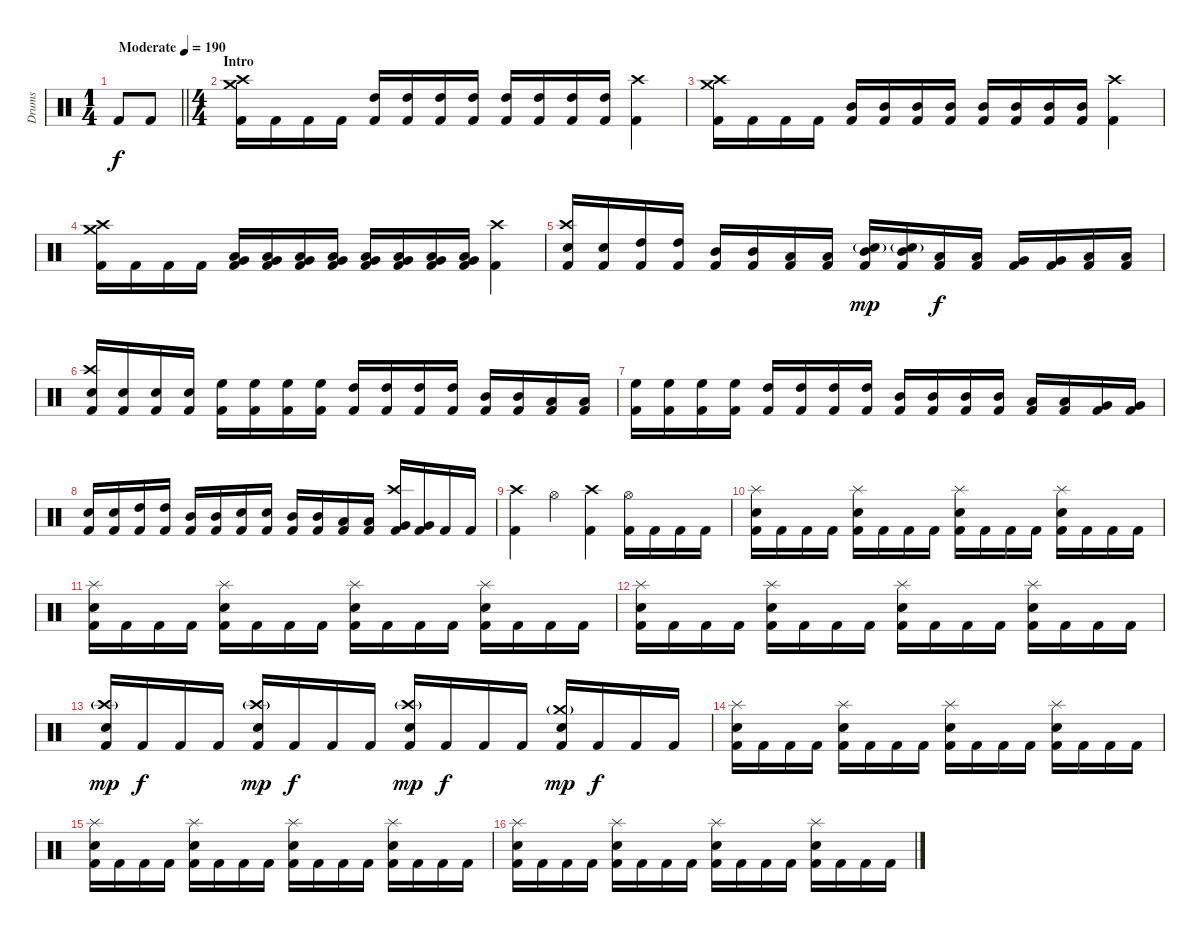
\track ("Drums" "Drums") {instrument percussion}
\staff {score}
\articulation defaults
\ts (1 4)
\tempo (190 "Moderate")
\clef neutral
\barLineRight lightlight
\ks c "Kick (hit) 2".8{dy f} "Kick (hit) 2".8
|
\ts (4 4)
\section ("" "Intro")
("Crash high (hit)" "Crash medium (hit)" "Kick (hit) 2").16 "Kick (hit) 2".16 "Kick (hit) 2".16 "Kick (hit) 2".16 ("High Tom (hit)" "Kick (hit) 2").16 ("High Tom (hit)" "Kick (hit) 2").16 ("High Tom (hit)" "Kick (hit) 2").16 ("High Tom (hit)" "Kick (hit) 2").16 ("High Tom (hit)" "Kick (hit) 2").16 ("High Tom (hit)" "Kick (hit) 2").16 ("High Tom (hit)" "Kick (hit) 2").16 ("High Tom (hit)" "Kick (hit) 2").16 ("Crash high (hit)" "Kick (hit) 2").4 |
("Crash high (hit)" "Crash medium (hit)" "Kick (hit) 2").16 "Kick (hit) 2".16 "Kick (hit) 2".16 "Kick (hit) 2".16 ("Mid Tom (hit)" "Kick (hit) 2").16 ("Mid Tom (hit)" "Kick (hit) 2").16 ("Mid Tom (hit)" "Kick (hit) 2").16 ("Mid Tom (hit)" "Kick (hit) 2").16 ("Mid Tom (hit)" "Kick (hit) 2").16 ("Mid Tom (hit)" "Kick (hit) 2").16 ("Mid Tom (hit)" "Kick (hit) 2").16 ("Mid Tom (hit)" "Kick (hit) 2").16 ("Crash high (hit)" "Kick (hit) 2").4 |
("Crash high (hit)" "Crash medium (hit)" "Kick (hit) 2").16 "Kick (hit) 2".16 "Kick (hit) 2".16 "Kick (hit) 2".16 ("Low Tom (hit)" "Very Low Tom (hit)" "Kick (hit) 2").16 ("Low Tom (hit)" "Very Low Tom (hit)" "Kick (hit) 2").16 ("Low Tom (hit)" "Very Low Tom (hit)" "Kick (hit) 2").16 ("Low Tom (hit)" "Very Low Tom (hit)" "Kick (hit) 2").16 ("Low Tom (hit)" "Very Low Tom (hit)" "Kick (hit) 2").16 ("Low Tom (hit)" "Very Low Tom (hit)" "Kick (hit) 2").16 ("Low Tom (hit)" "Very Low Tom (hit)" "Kick (hit) 2").16 ("Low Tom (hit)" "Very Low Tom (hit)" "Kick (hit) 2").16 ("Crash high (hit)" "Kick (hit) 2").4 |
("Crash high (hit)" "Snare (hit) 2" "Kick (hit) 2").16 ("Snare (hit) 2" "Kick (hit) 2").16 ("High Tom (hit)" "Kick (hit) 2").16 ("High Tom (hit)" "Kick (hit) 2").16 ("Mid Tom (hit)" "Kick (hit) 2").16 ("Mid Tom (hit)" "Kick (hit) 2").16 ("Low Tom (hit)" "Kick (hit) 2").16 ("Low Tom (hit)" "Kick (hit) 2").16 ("Mid Tom (hit)" "Snare (hit) 2"{g} "Kick (hit) 2").16{dy mp} ("Mid Tom (hit)" "Snare (hit) 2"{g} "Kick (hit) 2").16 ("Low Tom (hit)" "Kick (hit) 2").16{dy f} ("Low Tom (hit)" "Kick (hit) 2").16 ("Very Low Tom (hit)" "Kick (hit) 2").16 ("Very Low Tom (hit)" "Kick (hit) 2").16 ("Low Floor Tom (hit)" "Kick (hit) 2").16 ("Low Floor Tom (hit)" "Kick (hit) 2").16 |
("Crash high (hit)" "Snare (hit) 2" "Kick (hit) 2").16 ("Snare (hit) 2" "Kick (hit) 2").16 ("Snare (hit) 2" "Kick (hit) 2").16 ("Snare (hit) 2" "Kick (hit) 2").16 ("High Floor Tom (hit)" "Kick (hit) 2").16 ("High Floor Tom (hit)" "Kick (hit) 2").16 ("High Floor Tom (hit)" "Kick (hit) 2").16 ("High Floor Tom (hit)" "Kick (hit) 2").16 ("High Tom (hit)" "Kick (hit) 2").16 ("High Tom (hit)" "Kick (hit) 2").16 ("High Tom (hit)" "Kick (hit) 2").16 ("High Tom (hit)" "Kick (hit) 2").16 ("Mid Tom (hit)" "Kick (hit) 2").16 ("Mid Tom (hit)" "Kick (hit) 2").16 ("Low Tom (hit)" "Kick (hit) 2").16 ("Low Tom (hit)" "Kick (hit) 2").16 |
("High Floor Tom (hit)" "Kick (hit) 2").16 ("High Floor Tom (hit)" "Kick (hit) 2").16 ("High Floor Tom (hit)" "Kick (hit) 2").16 ("High Floor Tom (hit)" "Kick (hit) 2").16 ("High Tom (hit)" "Kick (hit) 2").16 ("High Tom (hit)" "Kick (hit) 2").16 ("High Tom (hit)" "Kick (hit) 2").16 ("High Tom (hit)" "Kick (hit) 2").16 ("Mid Tom (hit)" "Kick (hit) 2").16 ("Mid Tom (hit)" "Kick (hit) 2").16 ("Mid Tom (hit)" "Kick (hit) 2").16 ("Mid Tom (hit)" "Kick (hit) 2").16 ("Low Tom (hit)" "Kick (hit) 2").16 ("Low Tom (hit)" "Kick (hit) 2").16 ("Very Low Tom (hit)" "Kick (hit) 2").16 ("Very Low Tom (hit)" "Kick (hit) 2").16 |
("Snare (hit) 2" "Kick (hit) 2").16 ("Snare (hit) 2" "Kick (hit) 2").16 ("High Tom (hit)" "Kick (hit) 2").16 ("High Tom (hit)" "Kick (hit) 2").16 ("Mid Tom (hit)" "Kick (hit) 2").16 ("Mid Tom (hit)" "Kick (hit) 2").16 ("Snare (hit) 2" "Kick (hit) 2").16 ("Snare (hit) 2" "Kick (hit) 2").16 ("Mid Tom (hit)" "Kick (hit) 2").16 ("Mid Tom (hit)" "Kick (hit) 2").16 ("Low Tom (hit)" "Kick (hit) 2").16 ("Low Tom (hit)" "Kick (hit) 2").16 ("Crash high (hit)" "Very Low Tom (hit)" "Kick (hit) 2").16 ("Very Low Tom (hit)" "Kick (hit) 2").16 "Kick (hit) 2".16 "Kick (hit) 2".16 |
("Crash high (hit)" "Kick (hit) 2").4 "Hi-Hat (open)".4 ("Crash high (hit)" "Kick (hit) 2").4 ("Hi-Hat (open)" "Kick (hit) 2").16 "Kick (hit) 2".16 "Kick (hit) 2".16 "Kick (hit) 2".16 |
("Splash (hit)" "Snare (hit) 2" "Kick (hit) 2").16 "Kick (hit) 2".16 "Kick (hit) 2".16 "Kick (hit) 2".16 ("Splash (hit)" "Snare (hit) 2" "Kick (hit) 2").16 "Kick (hit) 2".16 "Kick (hit) 2".16 "Kick (hit) 2".16 ("Splash (hit)" "Snare (hit) 2" "Kick (hit) 2").16 "Kick (hit) 2".16 "Kick (hit) 2".16 "Kick (hit) 2".16 ("Splash (hit)" "Snare (hit) 2" "Kick (hit) 2").16 "Kick (hit) 2".16 "Kick (hit) 2".16 "Kick (hit) 2".16 |
("Splash (hit)" "Snare (hit) 2" "Kick (hit) 2").16 "Kick (hit) 2".16 "Kick (hit) 2".16 "Kick (hit) 2".16 ("Splash (hit)" "Snare (hit) 2" "Kick (hit) 2").16 "Kick (hit) 2".16 "Kick (hit) 2".16 "Kick (hit) 2".16 ("Splash (hit)" "Snare (hit) 2" "Kick (hit) 2").16 "Kick (hit) 2".16 "Kick (hit) 2".16 "Kick (hit) 2".16 ("Splash (hit)" "Snare (hit) 2" "Kick (hit) 2").16 "Kick (hit) 2".16 "Kick (hit) 2".16 "Kick (hit) 2".16 |
("Splash (hit)" "Snare (hit) 2" "Kick (hit) 2").16 "Kick (hit) 2".16 "Kick (hit) 2".16 "Kick (hit) 2".16 ("Splash (hit)" "Snare (hit) 2" "Kick (hit) 2").16 "Kick (hit) 2".16 "Kick (hit) 2".16 "Kick (hit) 2".16 ("Splash (hit)" "Snare (hit) 2" "Kick (hit) 2").16 "Kick (hit) 2".16 "Kick (hit) 2".16 "Kick (hit) 2".16 ("Splash (hit)" "Snare (hit) 2" "Kick (hit) 2").16 "Kick (hit) 2".16 "Kick (hit) 2".16 "Kick (hit) 2".16 |
("Crash high (hit)"{g} "Snare (hit) 2" "Kick (hit) 2").16{dy mp} "Kick (hit) 2".16{dy f} "Kick (hit) 2".16 "Kick (hit) 2".16 ("Crash high (hit)"{g} "Snare (hit) 2" "Kick (hit) 2").16{dy mp} "Kick (hit) 2".16{dy f} "Kick (hit) 2".16 "Kick (hit) 2".16 ("Crash high (hit)"{g} "Snare (hit) 2" "Kick (hit) 2").16{dy mp} "Kick (hit) 2".16{dy f} "Kick (hit) 2".16 "Kick (hit) 2".16 ("Crash medium (hit)"{g} "Snare (hit) 2" "Kick (hit) 2").16{dy mp} "Kick (hit) 2".16{dy f} "Kick (hit) 2".16 "Kick (hit) 2".16 |
("Splash (hit)" "Snare (hit) 2" "Kick (hit) 2").16 "Kick (hit) 2".16 "Kick (hit) 2".16 "Kick (hit) 2".16 ("Splash (hit)" "Snare (hit) 2" "Kick (hit) 2").16 "Kick (hit) 2".16 "Kick (hit) 2".16 "Kick (hit) 2".16 ("Splash (hit)" "Snare (hit) 2" "Kick (hit) 2").16 "Kick (hit) 2".16 "Kick (hit) 2".16 "Kick (hit) 2".16 ("Splash (hit)" "Snare (hit) 2" "Kick (hit) 2").16 "Kick (hit) 2".16 "Kick (hit) 2".16 "Kick (hit) 2".16 |
("Splash (hit)" "Snare (hit) 2" "Kick (hit) 2").16 "Kick (hit) 2".16 "Kick (hit) 2".16 "Kick (hit) 2".16 ("Splash (hit)" "Snare (hit) 2" "Kick (hit) 2").16 "Kick (hit) 2".16 "Kick (hit) 2".16 "Kick (hit) 2".16 ("Splash (hit)" "Snare (hit) 2" "Kick (hit) 2").16 "Kick (hit) 2".16 "Kick (hit) 2".16 "Kick (hit) 2".16 ("Splash (hit)" "Snare (hit) 2" "Kick (hit) 2").16 "Kick (hit) 2".16 "Kick (hit) 2".16 "Kick (hit) 2".16 |
("Splash (hit)" "Snare (hit) 2" "Kick (hit) 2").16 "Kick (hit) 2".16 "Kick (hit) 2".16 "Kick (hit) 2".16 ("Splash (hit)" "Snare (hit) 2" "Kick (hit) 2").16 "Kick (hit) 2".16 "Kick (hit) 2".16 "Kick (hit) 2".16 ("Splash (hit)" "Snare (hit) 2" "Kick (hit) 2").16 "Kick (hit) 2".16 "Kick (hit) 2".16 "Kick (hit) 2".16 ("Splash (hit)" "Snare (hit) 2" "Kick (hit) 2").16 "Kick (hit) 2".16 "Kick (hit) 2".16 "Kick (hit) 2".16
